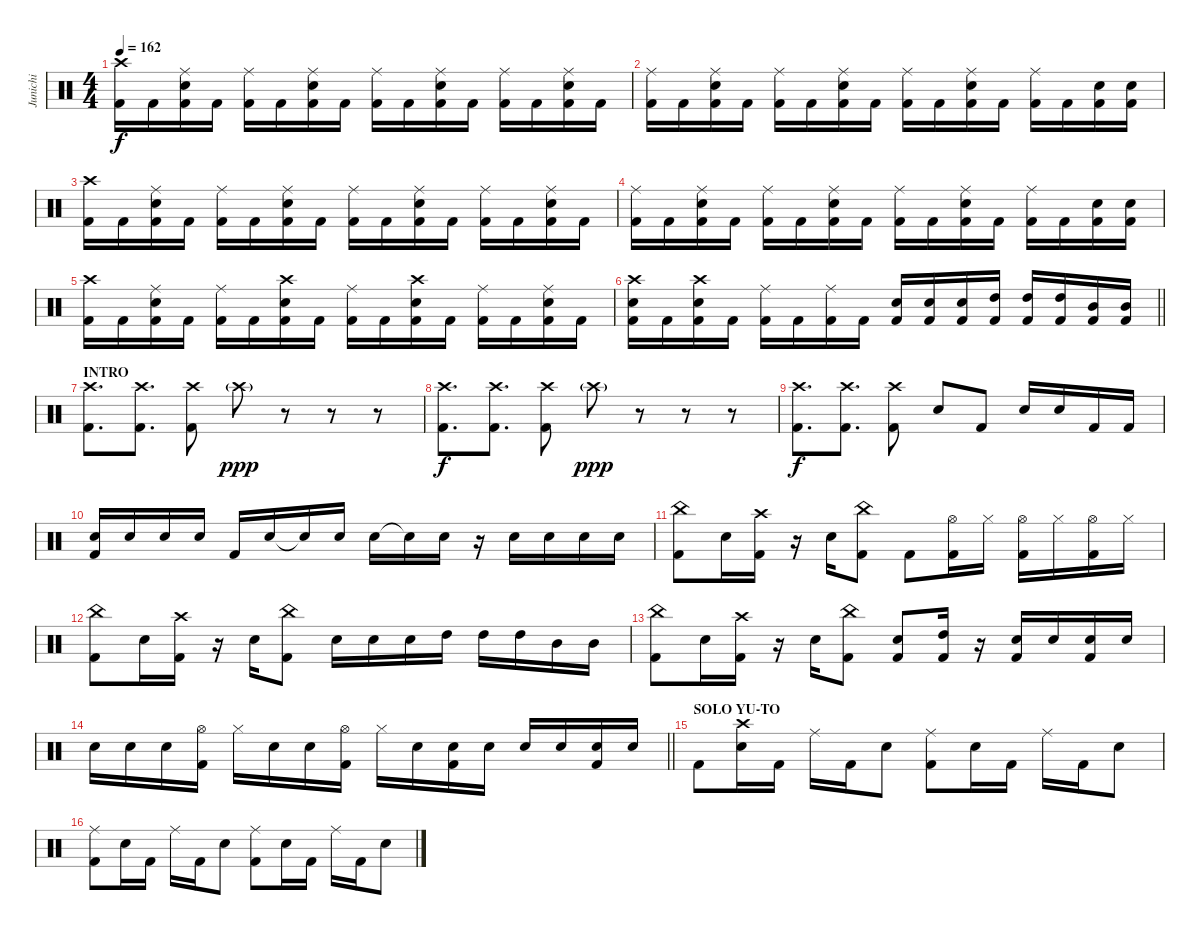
\track ("Junichi" "Junichi") {instrument percussion}
\staff {score}
\articulation defaults
\ts (4 4)
\tempo 162
\clef neutral
\ks c
("Crash high (hit)" "Kick (hit) 2").16{dy f} "Kick (hit) 2".16 ("Ride (middle)" "Electric Snare (hit)" "Kick (hit) 2").16 "Kick (hit) 2".16 ("Ride (middle)" "Kick (hit) 2").16 "Kick (hit) 2".16 ("Ride (middle)" "Electric Snare (hit)" "Kick (hit) 2").16 "Kick (hit) 2".16 ("Ride (middle)" "Kick (hit) 2").16 "Kick (hit) 2".16 ("Ride (middle)" "Electric Snare (hit)" "Kick (hit) 2").16 "Kick (hit) 2".16 ("Ride (middle)" "Kick (hit) 2").16 "Kick (hit) 2".16 ("Ride (middle)" "Electric Snare (hit)" "Kick (hit) 2").16 "Kick (hit) 2".16 |
("Ride (middle)" "Kick (hit) 2").16 "Kick (hit) 2".16 ("Ride (middle)" "Electric Snare (hit)" "Kick (hit) 2").16 "Kick (hit) 2".16 ("Ride (middle)" "Kick (hit) 2").16 "Kick (hit) 2".16 ("Ride (middle)" "Electric Snare (hit)" "Kick (hit) 2").16 "Kick (hit) 2".16 ("Ride (middle)" "Kick (hit) 2").16 "Kick (hit) 2".16 ("Ride (middle)" "Electric Snare (hit)" "Kick (hit) 2").16 "Kick (hit) 2".16 ("Ride (middle)" "Kick (hit) 2").16 "Kick (hit) 2".16 ("Electric Snare (hit)" "Kick (hit) 2").16 ("Electric Snare (hit)" "Kick (hit) 2").16 |
("Crash high (hit)" "Kick (hit) 2").16 "Kick (hit) 2".16 ("Ride (middle)" "Electric Snare (hit)" "Kick (hit) 2").16 "Kick (hit) 2".16 ("Ride (middle)" "Kick (hit) 2").16 "Kick (hit) 2".16 ("Ride (middle)" "Electric Snare (hit)" "Kick (hit) 2").16 "Kick (hit) 2".16 ("Ride (middle)" "Kick (hit) 2").16 "Kick (hit) 2".16 ("Ride (middle)" "Electric Snare (hit)" "Kick (hit) 2").16 "Kick (hit) 2".16 ("Ride (middle)" "Kick (hit) 2").16 "Kick (hit) 2".16 ("Ride (middle)" "Electric Snare (hit)" "Kick (hit) 2").16 "Kick (hit) 2".16 |
("Ride (middle)" "Kick (hit) 2").16 "Kick (hit) 2".16 ("Ride (middle)" "Electric Snare (hit)" "Kick (hit) 2").16 "Kick (hit) 2".16 ("Ride (middle)" "Kick (hit) 2").16 "Kick (hit) 2".16 ("Ride (middle)" "Electric Snare (hit)" "Kick (hit) 2").16 "Kick (hit) 2".16 ("Ride (middle)" "Kick (hit) 2").16 "Kick (hit) 2".16 ("Ride (middle)" "Electric Snare (hit)" "Kick (hit) 2").16 "Kick (hit) 2".16 ("Ride (middle)" "Kick (hit) 2").16 "Kick (hit) 2".16 ("Electric Snare (hit)" "Kick (hit) 2").16 ("Electric Snare (hit)" "Kick (hit) 2").16 |
("Crash high (hit)" "Kick (hit) 2").16 "Kick (hit) 2".16 ("Ride (middle)" "Electric Snare (hit)" "Kick (hit) 2").16 "Kick (hit) 2".16 ("Ride (middle)" "Kick (hit) 2").16 "Kick (hit) 2".16 ("Crash high (hit)" "Electric Snare (hit)" "Kick (hit) 2").16 "Kick (hit) 2".16 ("Ride (middle)" "Kick (hit) 2").16 "Kick (hit) 2".16 ("Crash high (hit)" "Electric Snare (hit)" "Kick (hit) 2").16 "Kick (hit) 2".16 ("Ride (middle)" "Kick (hit) 2").16 "Kick (hit) 2".16 ("Ride (middle)" "Electric Snare (hit)" "Kick (hit) 2").16 "Kick (hit) 2".16 |
\barLineRight lightlight
("Crash high (hit)" "Electric Snare (hit)" "Kick (hit) 2").16 "Kick (hit) 2".16 ("Crash high (hit)" "Electric Snare (hit)" "Kick (hit) 2").16 "Kick (hit) 2".16 ("Ride (middle)" "Kick (hit) 2").16 "Kick (hit) 2".16 ("Ride (middle)" "Kick (hit) 2").16 "Kick (hit) 2".16 ("Electric Snare (hit)" "Kick (hit) 2").16 ("Electric Snare (hit)" "Kick (hit) 2").16 ("Electric Snare (hit)" "Kick (hit) 2").16 ("High Tom (hit)" "Kick (hit) 2").16 ("High Tom (hit)" "Kick (hit) 2").16 ("High Tom (hit)" "Kick (hit) 2").16 ("Mid Tom (hit)" "Kick (hit) 2").16 ("Mid Tom (hit)" "Kick (hit) 2").16 |
\section ("" "INTRO")
("Crash high (hit)" "Kick (hit) 2").8{d} ("Crash high (hit)" "Kick (hit) 2").8{d} ("Crash high (hit)" "Kick (hit) 2").8 "Crash high (hit)"{g}.8{dy ppp} r.8 r.8 r.8 |
("Crash high (hit)" "Kick (hit) 2").8{d dy f} ("Crash high (hit)" "Kick (hit) 2").8{d} ("Crash high (hit)" "Kick (hit) 2").8 "Crash high (hit)"{g}.8{dy ppp} r.8 r.8 r.8 |
("Crash high (hit)" "Kick (hit) 2").8{d dy f} ("Crash high (hit)" "Kick (hit) 2").8{d} ("Crash high (hit)" "Kick (hit) 2").8 "Electric Snare (hit)".8 "Kick (hit) 2".8 "Electric Snare (hit)".16 "Electric Snare (hit)".16 "Kick (hit) 2".16 "Kick (hit) 2".16 |
("Electric Snare (hit)" "Kick (hit) 2").16 "Electric Snare (hit)".16 "Electric Snare (hit)".16 "Electric Snare (hit)".16 "Kick (hit) 2".16 "Electric Snare (hit)".16 "Electric Snare (hit)"{t}.16 "Electric Snare (hit)".16 "Electric Snare (hit)".16 "Electric Snare (hit)"{t}.16 "Electric Snare (hit)".16 r.16 "Electric Snare (hit)".16 "Electric Snare (hit)".16 "Electric Snare (hit)".16 "Electric Snare (hit)".16 |
("China (hit)" "Kick (hit) 2").8 "Electric Snare (hit)".16 ("Crash high (hit)" "Kick (hit) 2").16 r.16 "Electric Snare (hit)".16 ("China (hit)" "Kick (hit) 2").8 "Kick (hit) 2".8 ("Hi-Hat (open)" "Kick (hit) 2").16 "Hi-Hat (closed)".16 ("Hi-Hat (open)" "Kick (hit) 2").16 "Hi-Hat (closed)".16 ("Hi-Hat (open)" "Kick (hit) 2").16 "Hi-Hat (closed)".16 |
("China (hit)" "Kick (hit) 2").8 "Electric Snare (hit)".16 ("Crash high (hit)" "Kick (hit) 2").16 r.16 "Electric Snare (hit)".16 ("China (hit)" "Kick (hit) 2").8 "Electric Snare (hit)".16 "Electric Snare (hit)".16 "Electric Snare (hit)".16 "High Tom (hit)".16 "High Tom (hit)".16 "High Tom (hit)".16 "Mid Tom (hit)".16 "Mid Tom (hit)".16 |
("China (hit)" "Kick (hit) 2").8 "Electric Snare (hit)".16 ("Crash high (hit)" "Kick (hit) 2").16 r.16 "Electric Snare (hit)".16 ("China (hit)" "Kick (hit) 2").8 ("Electric Snare (hit)" "Kick (hit) 2").8 ("High Tom (hit)" "Kick (hit) 2").16 r.16 ("Electric Snare (hit)" "Kick (hit) 2").16 "Electric Snare (hit)".16 ("Electric Snare (hit)" "Kick (hit) 2").16 "Electric Snare (hit)".16 |
\barLineRight lightlight "Electric Snare (hit)".16 "Electric Snare (hit)".16 "Electric Snare (hit)".16
("Hi-Hat (open)" "Kick (hit) 2").16 "Hi-Hat (closed)".16 "Electric Snare (hit)".16 "Electric Snare (hit)".16 ("Hi-Hat (open)" "Kick (hit) 2").16 "Hi-Hat (closed)".16 "Electric Snare (hit)".16 ("Electric Snare (hit)" "Kick (hit) 2").16 "Electric Snare (hit)".16 "Electric Snare (hit)".16 "Electric Snare (hit)".16 ("Electric Snare (hit)" "Kick (hit) 2").16 "Electric Snare (hit)".16 |
\section ("" "SOLO YU-TO")
"Kick (hit) 2".8 ("Crash high (hit)" "Electric Snare (hit)").16 "Kick (hit) 2".16 "Ride (middle)".16 "Kick (hit) 2".16 "Electric Snare (hit)".8 ("Ride (middle)" "Kick (hit) 2").8 "Electric Snare (hit)".16 "Kick (hit) 2".16 "Ride (middle)".16 "Kick (hit) 2".16 "Electric Snare (hit)".8 |
("Ride (middle)" "Kick (hit) 2").8 "Electric Snare (hit)".16 "Kick (hit) 2".16 "Ride (middle)".16 "Kick (hit) 2".16 "Electric Snare (hit)".8 ("Ride (middle)" "Kick (hit) 2").8 "Electric Snare (hit)".16 "Kick (hit) 2".16 "Ride (middle)".16 "Kick (hit) 2".16 "Electric Snare (hit)".8
